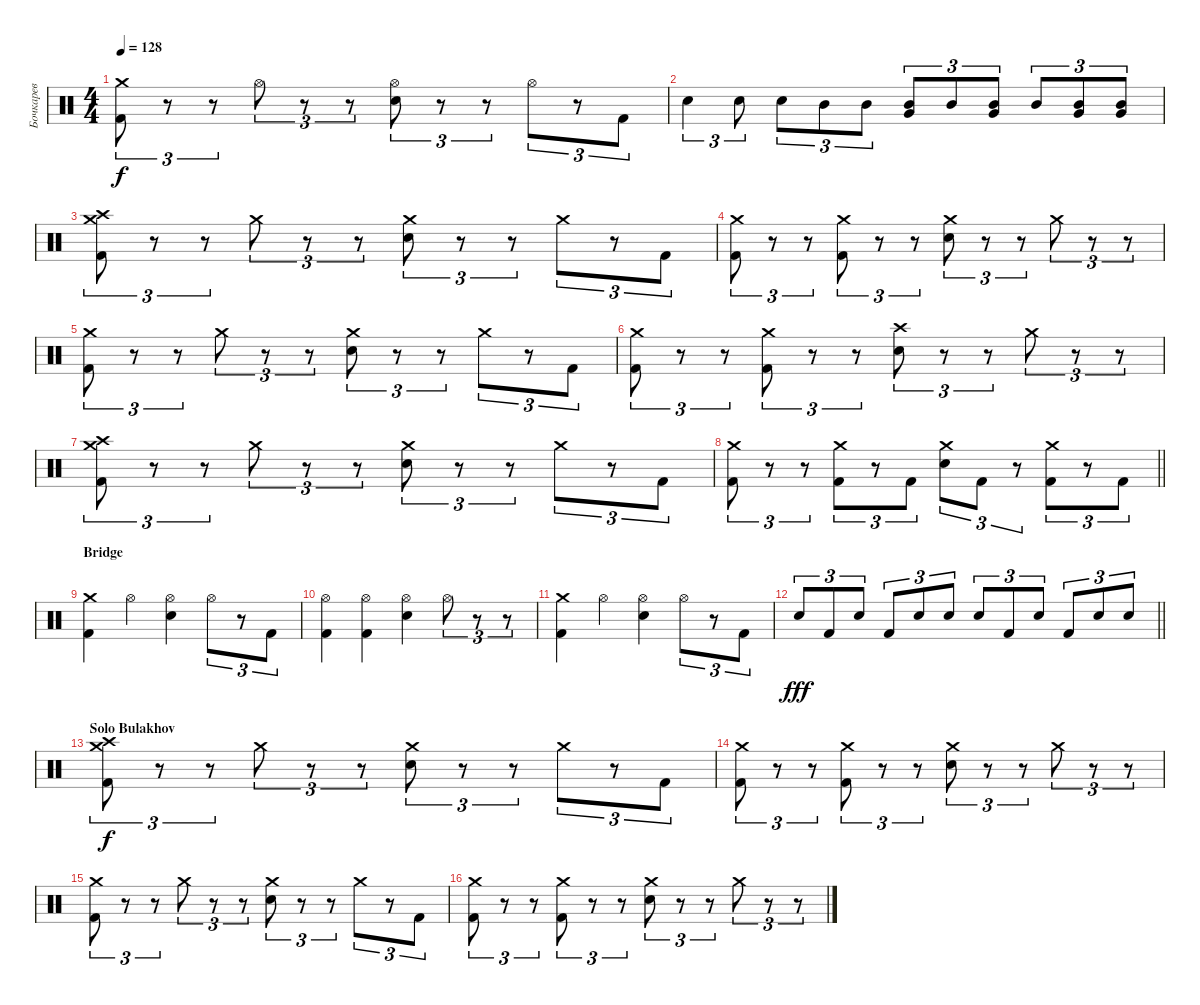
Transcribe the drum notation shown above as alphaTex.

\track ("Бочкарев" "Бочкарев") {instrument percussion}
\staff
\articulation defaults
\ts (4 4)
\tempo 128
\clef neutral
\ks c
("Crash medium (hit)" "Kick (hit) 2").8{tu (3 2) dy f} r.8{tu (3 2)} r.8{tu (3 2)} "Hi-Hat (open)".8{tu (3 2)} r.8{tu (3 2)} r.8{tu (3 2)} ("Hi-Hat (open)" "Electric Snare (hit)").8{tu (3 2)} r.8{tu (3 2)} r.8{tu (3 2)} "Hi-Hat (open)".8{tu (3 2)} r.8{tu (3 2)} "Kick (hit) 2".8{tu (3 2)} |
"Electric Snare (hit)".4{tu (3 2)} "Electric Snare (hit)".8{tu (3 2)} "Electric Snare (hit)".8{tu (3 2)} "Mid Tom (hit)".8{tu (3 2)} "Mid Tom (hit)".8{tu (3 2)} ("Mid Tom (hit)" "Very Low Tom (hit)").8{tu (3 2)} "Mid Tom (hit)".8{tu (3 2)} ("Mid Tom (hit)" "Very Low Tom (hit)").8{tu (3 2)} "Mid Tom (hit)".8{tu (3 2)} ("Mid Tom (hit)" "Very Low Tom (hit)").8{tu (3 2)} ("Mid Tom (hit)" "Very Low Tom (hit)").8{tu (3 2)} |
("Crash high (hit)" "Crash medium (hit)" "Kick (hit) 2").8{tu (3 2)} r.8{tu (3 2)} r.8{tu (3 2)} "Crash medium (hit)".8{tu (3 2)} r.8{tu (3 2)} r.8{tu (3 2)} ("Crash medium (hit)" "Electric Snare (hit)").8{tu (3 2)} r.8{tu (3 2)} r.8{tu (3 2)} "Crash medium (hit)".8{tu (3 2)} r.8{tu (3 2)} "Kick (hit) 2".8{tu (3 2)} |
("Crash medium (hit)" "Kick (hit) 2").8{tu (3 2)} r.8{tu (3 2)} r.8{tu (3 2)} ("Crash medium (hit)" "Kick (hit) 2").8{tu (3 2)} r.8{tu (3 2)} r.8{tu (3 2)} ("Crash medium (hit)" "Electric Snare (hit)").8{tu (3 2)} r.8{tu (3 2)} r.8{tu (3 2)} "Crash medium (hit)".8{tu (3 2)} r.8{tu (3 2)} r.8{tu (3 2)} |
("Crash medium (hit)" "Kick (hit) 2").8{tu (3 2)} r.8{tu (3 2)} r.8{tu (3 2)} "Crash medium (hit)".8{tu (3 2)} r.8{tu (3 2)} r.8{tu (3 2)} ("Crash medium (hit)" "Electric Snare (hit)").8{tu (3 2)} r.8{tu (3 2)} r.8{tu (3 2)} "Crash medium (hit)".8{tu (3 2)} r.8{tu (3 2)} "Kick (hit) 2".8{tu (3 2)} |
("Crash medium (hit)" "Kick (hit) 2").8{tu (3 2)} r.8{tu (3 2)} r.8{tu (3 2)} ("Crash medium (hit)" "Kick (hit) 2").8{tu (3 2)} r.8{tu (3 2)} r.8{tu (3 2)} ("Crash high (hit)" "Electric Snare (hit)").8{tu (3 2)} r.8{tu (3 2)} r.8{tu (3 2)} "Crash medium (hit)".8{tu (3 2)} r.8{tu (3 2)} r.8{tu (3 2)} |
("Crash high (hit)" "Crash medium (hit)" "Kick (hit) 2").8{tu (3 2)} r.8{tu (3 2)} r.8{tu (3 2)} "Crash medium (hit)".8{tu (3 2)} r.8{tu (3 2)} r.8{tu (3 2)} ("Crash medium (hit)" "Electric Snare (hit)").8{tu (3 2)} r.8{tu (3 2)} r.8{tu (3 2)} "Crash medium (hit)".8{tu (3 2)} r.8{tu (3 2)} "Kick (hit) 2".8{tu (3 2)} |
\barLineRight lightlight
("Crash medium (hit)" "Kick (hit) 2").8{tu (3 2)} r.8{tu (3 2)} r.8{tu (3 2)} ("Crash medium (hit)" "Kick (hit) 2").8{tu (3 2)} r.8{tu (3 2)} "Kick (hit) 2".8{tu (3 2)} ("Crash medium (hit)" "Electric Snare (hit)").8{tu (3 2)} "Kick (hit) 2".8{tu (3 2)} r.8{tu (3 2)} ("Crash medium (hit)" "Kick (hit) 2").8{tu (3 2)} r.8{tu (3 2)} "Kick (hit) 2".8{tu (3 2)} |
\section ("" "Bridge")
("Crash medium (hit)" "Kick (hit) 2").4 "Hi-Hat (open)".4 ("Hi-Hat (open)" "Electric Snare (hit)").4 "Hi-Hat (open)".8{tu (3 2)} r.8{tu (3 2)} "Kick (hit) 2".8{tu (3 2)} |
("Hi-Hat (open)" "Kick (hit) 2").4 ("Hi-Hat (open)" "Kick (hit) 2").4 ("Hi-Hat (open)" "Electric Snare (hit)").4 "Hi-Hat (open)".8{tu (3 2)} r.8{tu (3 2)} r.8{tu (3 2)} |
("Crash medium (hit)" "Kick (hit) 2").4 "Hi-Hat (open)".4 ("Hi-Hat (open)" "Electric Snare (hit)").4 "Hi-Hat (open)".8{tu (3 2)} r.8{tu (3 2)} "Kick (hit) 2".8{tu (3 2)} |
\barLineRight lightlight "Electric Snare (hit)".8{tu (3 2) dy fff} "Kick (hit) 2".8{tu (3 2)} "Electric Snare (hit)".8{tu (3 2)} "Kick (hit) 2".8{tu (3 2)} "Electric Snare (hit)".8{tu (3 2)} "Electric Snare (hit)".8{tu (3 2)} "Electric Snare (hit)".8{tu (3 2)} "Kick (hit) 2".8{tu (3 2)} "Electric Snare (hit)".8{tu (3 2)} "Kick (hit) 2".8{tu (3 2)} "Electric Snare (hit)".8{tu (3 2)} "Electric Snare (hit)".8{tu (3 2)}
|
\section ("" "Solo Bulakhov")
("Crash high (hit)" "Crash medium (hit)" "Kick (hit) 2").8{tu (3 2) dy f} r.8{tu (3 2)} r.8{tu (3 2)} "Crash medium (hit)".8{tu (3 2)} r.8{tu (3 2)} r.8{tu (3 2)} ("Crash medium (hit)" "Electric Snare (hit)").8{tu (3 2)} r.8{tu (3 2)} r.8{tu (3 2)} "Crash medium (hit)".8{tu (3 2)} r.8{tu (3 2)} "Kick (hit) 2".8{tu (3 2)} |
("Crash medium (hit)" "Kick (hit) 2").8{tu (3 2)} r.8{tu (3 2)} r.8{tu (3 2)} ("Crash medium (hit)" "Kick (hit) 2").8{tu (3 2)} r.8{tu (3 2)} r.8{tu (3 2)} ("Crash medium (hit)" "Electric Snare (hit)").8{tu (3 2)} r.8{tu (3 2)} r.8{tu (3 2)} "Crash medium (hit)".8{tu (3 2)} r.8{tu (3 2)} r.8{tu (3 2)} |
("Crash medium (hit)" "Kick (hit) 2").8{tu (3 2)} r.8{tu (3 2)} r.8{tu (3 2)} "Crash medium (hit)".8{tu (3 2)} r.8{tu (3 2)} r.8{tu (3 2)} ("Crash medium (hit)" "Electric Snare (hit)").8{tu (3 2)} r.8{tu (3 2)} r.8{tu (3 2)} "Crash medium (hit)".8{tu (3 2)} r.8{tu (3 2)} "Kick (hit) 2".8{tu (3 2)} |
("Crash medium (hit)" "Kick (hit) 2").8{tu (3 2)} r.8{tu (3 2)} r.8{tu (3 2)} ("Crash medium (hit)" "Kick (hit) 2").8{tu (3 2)} r.8{tu (3 2)} r.8{tu (3 2)} ("Crash medium (hit)" "Electric Snare (hit)").8{tu (3 2)} r.8{tu (3 2)} r.8{tu (3 2)} "Crash medium (hit)".8{tu (3 2)} r.8{tu (3 2)} r.8{tu (3 2)}
